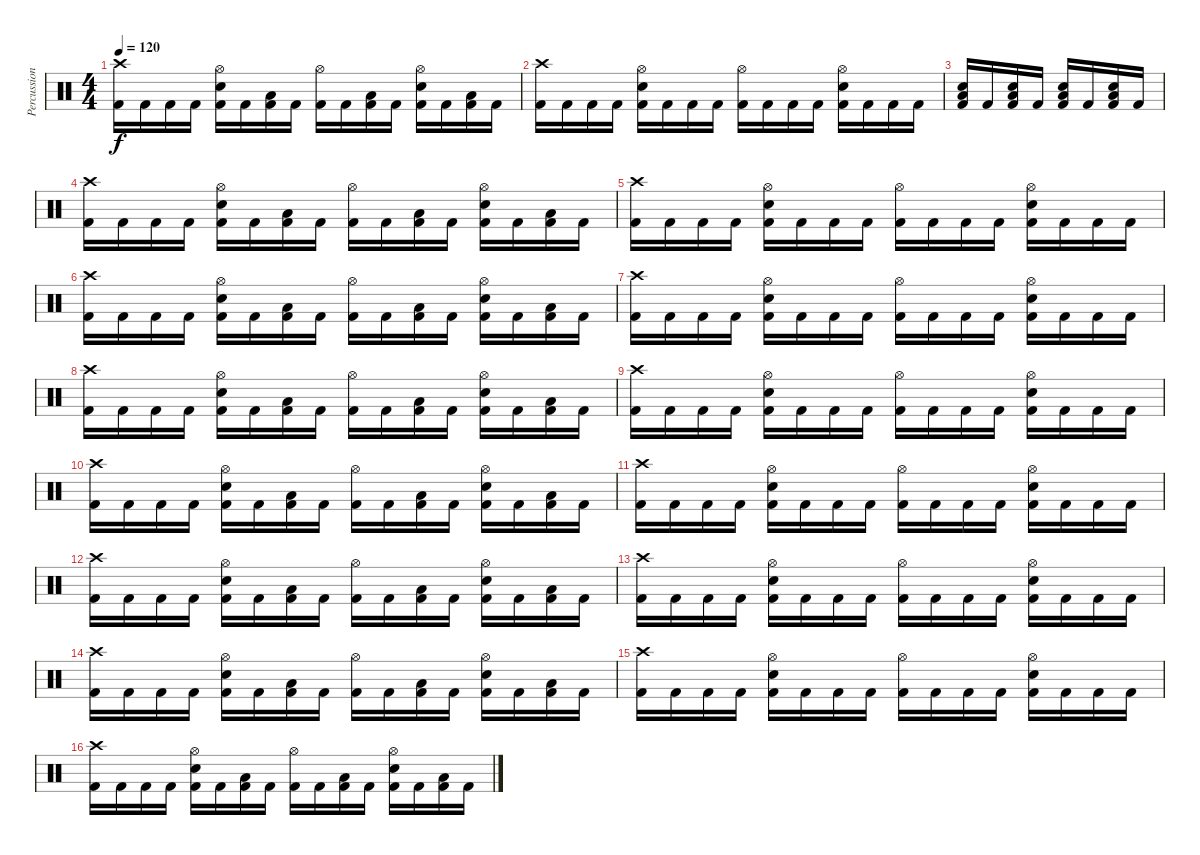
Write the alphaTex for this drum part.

\track ("Percussion" "Percussion") {instrument percussion}
\staff {score}
\articulation defaults
\ts (4 4)
\tempo 120
\clef neutral
\ks c
("Kick (hit) 2" "Crash high (hit)").16{dy f} "Kick (hit) 2".16 "Kick (hit) 2".16 "Kick (hit) 2".16 ("Kick (hit) 2" "Snare (hit) 2" "Hi-Hat (open)").16 "Kick (hit) 2".16 ("Kick (hit) 2" "Low Tom (hit)").16 "Kick (hit) 2".16 ("Kick (hit) 2" "Hi-Hat (open)").16 "Kick (hit) 2".16 ("Kick (hit) 2" "Low Tom (hit)").16 "Kick (hit) 2".16 ("Kick (hit) 2" "Snare (hit) 2" "Hi-Hat (open)").16 "Kick (hit) 2".16 ("Kick (hit) 2" "Low Floor Tom (hit)").16 "Kick (hit) 2".16 |
("Kick (hit) 2" "Crash high (hit)").16 "Kick (hit) 2".16 "Kick (hit) 2".16 "Kick (hit) 2".16 ("Kick (hit) 2" "Snare (hit) 2" "Hi-Hat (open)").16 "Kick (hit) 2".16 "Kick (hit) 2".16 "Kick (hit) 2".16 ("Kick (hit) 2" "Hi-Hat (open)").16 "Kick (hit) 2".16 "Kick (hit) 2".16 "Kick (hit) 2".16 ("Kick (hit) 2" "Snare (hit) 2" "Hi-Hat (open)").16 "Kick (hit) 2".16 "Kick (hit) 2".16 "Kick (hit) 2".16 |
("Kick (hit) 2" "Snare (hit) 2" "Low Floor Tom (hit)").16 "Kick (hit) 2".16 ("Kick (hit) 2" "Snare (hit) 2" "Low Floor Tom (hit)").16 "Kick (hit) 2".16 ("Kick (hit) 2" "Snare (hit) 2" "Low Floor Tom (hit)").16 "Kick (hit) 2".16 ("Kick (hit) 2" "Snare (hit) 2" "Low Floor Tom (hit)").16 "Kick (hit) 2".16 |
("Kick (hit) 2" "Crash high (hit)").16 "Kick (hit) 2".16 "Kick (hit) 2".16 "Kick (hit) 2".16 ("Kick (hit) 2" "Snare (hit) 2" "Hi-Hat (open)").16 "Kick (hit) 2".16 ("Kick (hit) 2" "Low Tom (hit)").16 "Kick (hit) 2".16 ("Kick (hit) 2" "Hi-Hat (open)").16 "Kick (hit) 2".16 ("Kick (hit) 2" "Low Tom (hit)").16 "Kick (hit) 2".16 ("Kick (hit) 2" "Snare (hit) 2" "Hi-Hat (open)").16 "Kick (hit) 2".16 ("Kick (hit) 2" "Low Floor Tom (hit)").16 "Kick (hit) 2".16 |
("Kick (hit) 2" "Crash high (hit)").16 "Kick (hit) 2".16 "Kick (hit) 2".16 "Kick (hit) 2".16 ("Kick (hit) 2" "Snare (hit) 2" "Hi-Hat (open)").16 "Kick (hit) 2".16 "Kick (hit) 2".16 "Kick (hit) 2".16 ("Kick (hit) 2" "Hi-Hat (open)").16 "Kick (hit) 2".16 "Kick (hit) 2".16 "Kick (hit) 2".16 ("Kick (hit) 2" "Snare (hit) 2" "Hi-Hat (open)").16 "Kick (hit) 2".16 "Kick (hit) 2".16 "Kick (hit) 2".16 |
("Kick (hit) 2" "Crash high (hit)").16 "Kick (hit) 2".16 "Kick (hit) 2".16 "Kick (hit) 2".16 ("Kick (hit) 2" "Snare (hit) 2" "Hi-Hat (open)").16 "Kick (hit) 2".16 ("Kick (hit) 2" "Low Tom (hit)").16 "Kick (hit) 2".16 ("Kick (hit) 2" "Hi-Hat (open)").16 "Kick (hit) 2".16 ("Kick (hit) 2" "Low Tom (hit)").16 "Kick (hit) 2".16 ("Kick (hit) 2" "Snare (hit) 2" "Hi-Hat (open)").16 "Kick (hit) 2".16 ("Kick (hit) 2" "Low Floor Tom (hit)").16 "Kick (hit) 2".16 |
("Kick (hit) 2" "Crash high (hit)").16 "Kick (hit) 2".16 "Kick (hit) 2".16 "Kick (hit) 2".16 ("Kick (hit) 2" "Snare (hit) 2" "Hi-Hat (open)").16 "Kick (hit) 2".16 "Kick (hit) 2".16 "Kick (hit) 2".16 ("Kick (hit) 2" "Hi-Hat (open)").16 "Kick (hit) 2".16 "Kick (hit) 2".16 "Kick (hit) 2".16 ("Kick (hit) 2" "Snare (hit) 2" "Hi-Hat (open)").16 "Kick (hit) 2".16 "Kick (hit) 2".16 "Kick (hit) 2".16 |
("Kick (hit) 2" "Crash high (hit)").16 "Kick (hit) 2".16 "Kick (hit) 2".16 "Kick (hit) 2".16 ("Kick (hit) 2" "Snare (hit) 2" "Hi-Hat (open)").16 "Kick (hit) 2".16 ("Kick (hit) 2" "Low Tom (hit)").16 "Kick (hit) 2".16 ("Kick (hit) 2" "Hi-Hat (open)").16 "Kick (hit) 2".16 ("Kick (hit) 2" "Low Tom (hit)").16 "Kick (hit) 2".16 ("Kick (hit) 2" "Snare (hit) 2" "Hi-Hat (open)").16 "Kick (hit) 2".16 ("Kick (hit) 2" "Low Floor Tom (hit)").16 "Kick (hit) 2".16 |
("Kick (hit) 2" "Crash high (hit)").16 "Kick (hit) 2".16 "Kick (hit) 2".16 "Kick (hit) 2".16 ("Kick (hit) 2" "Snare (hit) 2" "Hi-Hat (open)").16 "Kick (hit) 2".16 "Kick (hit) 2".16 "Kick (hit) 2".16 ("Kick (hit) 2" "Hi-Hat (open)").16 "Kick (hit) 2".16 "Kick (hit) 2".16 "Kick (hit) 2".16 ("Kick (hit) 2" "Snare (hit) 2" "Hi-Hat (open)").16 "Kick (hit) 2".16 "Kick (hit) 2".16 "Kick (hit) 2".16 |
("Kick (hit) 2" "Crash high (hit)").16 "Kick (hit) 2".16 "Kick (hit) 2".16 "Kick (hit) 2".16 ("Kick (hit) 2" "Snare (hit) 2" "Hi-Hat (open)").16 "Kick (hit) 2".16 ("Kick (hit) 2" "Low Tom (hit)").16 "Kick (hit) 2".16 ("Kick (hit) 2" "Hi-Hat (open)").16 "Kick (hit) 2".16 ("Kick (hit) 2" "Low Tom (hit)").16 "Kick (hit) 2".16 ("Kick (hit) 2" "Snare (hit) 2" "Hi-Hat (open)").16 "Kick (hit) 2".16 ("Kick (hit) 2" "Low Floor Tom (hit)").16 "Kick (hit) 2".16 |
("Kick (hit) 2" "Crash high (hit)").16 "Kick (hit) 2".16 "Kick (hit) 2".16 "Kick (hit) 2".16 ("Kick (hit) 2" "Snare (hit) 2" "Hi-Hat (open)").16 "Kick (hit) 2".16 "Kick (hit) 2".16 "Kick (hit) 2".16 ("Kick (hit) 2" "Hi-Hat (open)").16 "Kick (hit) 2".16 "Kick (hit) 2".16 "Kick (hit) 2".16 ("Kick (hit) 2" "Snare (hit) 2" "Hi-Hat (open)").16 "Kick (hit) 2".16 "Kick (hit) 2".16 "Kick (hit) 2".16 |
("Kick (hit) 2" "Crash high (hit)").16 "Kick (hit) 2".16 "Kick (hit) 2".16 "Kick (hit) 2".16 ("Kick (hit) 2" "Snare (hit) 2" "Hi-Hat (open)").16 "Kick (hit) 2".16 ("Kick (hit) 2" "Low Tom (hit)").16 "Kick (hit) 2".16 ("Kick (hit) 2" "Hi-Hat (open)").16 "Kick (hit) 2".16 ("Kick (hit) 2" "Low Tom (hit)").16 "Kick (hit) 2".16 ("Kick (hit) 2" "Snare (hit) 2" "Hi-Hat (open)").16 "Kick (hit) 2".16 ("Kick (hit) 2" "Low Floor Tom (hit)").16 "Kick (hit) 2".16 |
("Kick (hit) 2" "Crash high (hit)").16 "Kick (hit) 2".16 "Kick (hit) 2".16 "Kick (hit) 2".16 ("Kick (hit) 2" "Snare (hit) 2" "Hi-Hat (open)").16 "Kick (hit) 2".16 "Kick (hit) 2".16 "Kick (hit) 2".16 ("Kick (hit) 2" "Hi-Hat (open)").16 "Kick (hit) 2".16 "Kick (hit) 2".16 "Kick (hit) 2".16 ("Kick (hit) 2" "Snare (hit) 2" "Hi-Hat (open)").16 "Kick (hit) 2".16 "Kick (hit) 2".16 "Kick (hit) 2".16 |
("Kick (hit) 2" "Crash high (hit)").16 "Kick (hit) 2".16 "Kick (hit) 2".16 "Kick (hit) 2".16 ("Kick (hit) 2" "Snare (hit) 2" "Hi-Hat (open)").16 "Kick (hit) 2".16 ("Kick (hit) 2" "Low Tom (hit)").16 "Kick (hit) 2".16 ("Kick (hit) 2" "Hi-Hat (open)").16 "Kick (hit) 2".16 ("Kick (hit) 2" "Low Tom (hit)").16 "Kick (hit) 2".16 ("Kick (hit) 2" "Snare (hit) 2" "Hi-Hat (open)").16 "Kick (hit) 2".16 ("Kick (hit) 2" "Low Floor Tom (hit)").16 "Kick (hit) 2".16 |
("Kick (hit) 2" "Crash high (hit)").16 "Kick (hit) 2".16 "Kick (hit) 2".16 "Kick (hit) 2".16 ("Kick (hit) 2" "Snare (hit) 2" "Hi-Hat (open)").16 "Kick (hit) 2".16 "Kick (hit) 2".16 "Kick (hit) 2".16 ("Kick (hit) 2" "Hi-Hat (open)").16 "Kick (hit) 2".16 "Kick (hit) 2".16 "Kick (hit) 2".16 ("Kick (hit) 2" "Snare (hit) 2" "Hi-Hat (open)").16 "Kick (hit) 2".16 "Kick (hit) 2".16 "Kick (hit) 2".16 |
("Kick (hit) 2" "Crash high (hit)").16 "Kick (hit) 2".16 "Kick (hit) 2".16 "Kick (hit) 2".16 ("Kick (hit) 2" "Snare (hit) 2" "Hi-Hat (open)").16 "Kick (hit) 2".16 ("Kick (hit) 2" "Low Tom (hit)").16 "Kick (hit) 2".16 ("Kick (hit) 2" "Hi-Hat (open)").16 "Kick (hit) 2".16 ("Kick (hit) 2" "Low Tom (hit)").16 "Kick (hit) 2".16 ("Kick (hit) 2" "Snare (hit) 2" "Hi-Hat (open)").16 "Kick (hit) 2".16 ("Kick (hit) 2" "Low Floor Tom (hit)").16 "Kick (hit) 2".16
